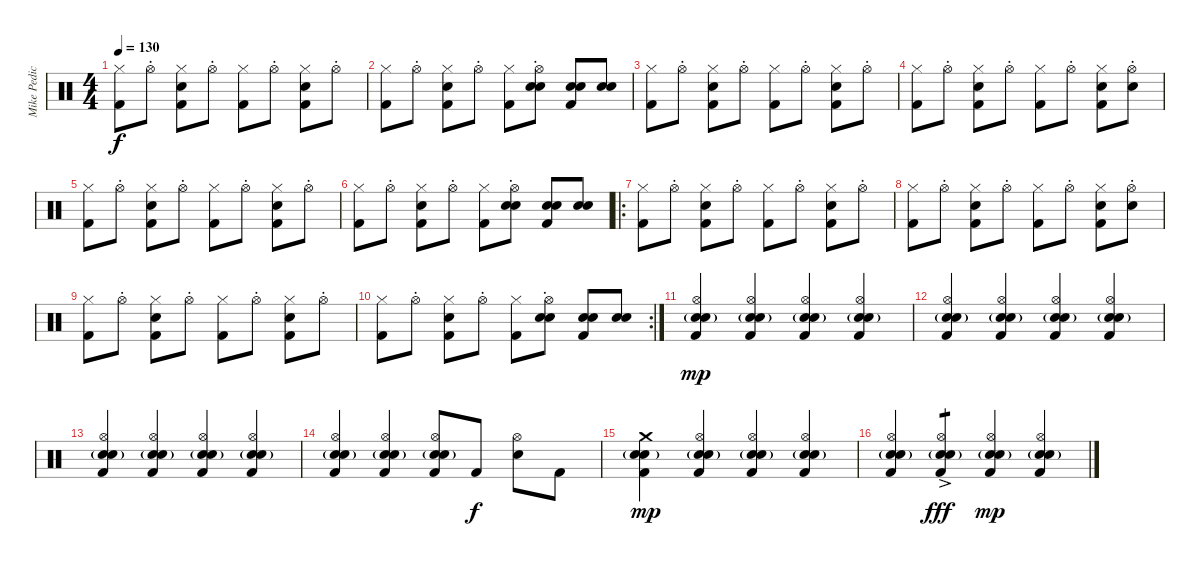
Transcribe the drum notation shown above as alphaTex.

\track ("Mike Pedicone - Drum" "Mike Pedic") {instrument percussion}
\staff {score}
\articulation defaults
\ts (4 4)
\tempo 130
\clef neutral
\ks c
("Hi-Hat (closed)" "Kick (hit) 2").8{dy f} "Hi-Hat (open)"{st}.8 ("Hi-Hat (closed)" "Electric Snare (hit)" "Kick (hit) 2").8 "Hi-Hat (open)"{st}.8 ("Hi-Hat (closed)" "Kick (hit) 2").8 "Hi-Hat (open)"{st}.8 ("Hi-Hat (closed)" "Electric Snare (hit)" "Kick (hit) 2").8 "Hi-Hat (open)"{st}.8 |
("Hi-Hat (closed)" "Kick (hit) 2").8 "Hi-Hat (open)"{st}.8 ("Hi-Hat (closed)" "Electric Snare (hit)" "Kick (hit) 2").8 "Hi-Hat (open)"{st}.8 ("Hi-Hat (closed)" "Kick (hit) 2").8 ("Hi-Hat (open)"{st} "Hand Clap (hit)" "Electric Snare (hit)").8 ("Hand Clap (hit)" "Electric Snare (hit)" "Kick (hit) 2").8 ("Hand Clap (hit)" "Electric Snare (hit)").8 |
("Hi-Hat (closed)" "Kick (hit) 2").8 "Hi-Hat (open)"{st}.8 ("Hi-Hat (closed)" "Electric Snare (hit)" "Kick (hit) 2").8 "Hi-Hat (open)"{st}.8 ("Hi-Hat (closed)" "Kick (hit) 2").8 "Hi-Hat (open)"{st}.8 ("Hi-Hat (closed)" "Electric Snare (hit)" "Kick (hit) 2").8 "Hi-Hat (open)"{st}.8 |
("Hi-Hat (closed)" "Kick (hit) 2").8 "Hi-Hat (open)"{st}.8 ("Hi-Hat (closed)" "Electric Snare (hit)" "Kick (hit) 2").8 "Hi-Hat (open)"{st}.8 ("Hi-Hat (closed)" "Kick (hit) 2").8 "Hi-Hat (open)"{st}.8 ("Hi-Hat (closed)" "Electric Snare (hit)" "Kick (hit) 2").8 ("Hi-Hat (open)"{st} "Electric Snare (hit)").8 |
("Hi-Hat (closed)" "Kick (hit) 2").8 "Hi-Hat (open)"{st}.8 ("Hi-Hat (closed)" "Electric Snare (hit)" "Kick (hit) 2").8 "Hi-Hat (open)"{st}.8 ("Hi-Hat (closed)" "Kick (hit) 2").8 "Hi-Hat (open)"{st}.8 ("Hi-Hat (closed)" "Electric Snare (hit)" "Kick (hit) 2").8 "Hi-Hat (open)"{st}.8 |
("Hi-Hat (closed)" "Kick (hit) 2").8 "Hi-Hat (open)"{st}.8 ("Hi-Hat (closed)" "Electric Snare (hit)" "Kick (hit) 2").8 "Hi-Hat (open)"{st}.8 ("Hi-Hat (closed)" "Kick (hit) 2").8 ("Hi-Hat (open)"{st} "Hand Clap (hit)" "Electric Snare (hit)").8 ("Hand Clap (hit)" "Electric Snare (hit)" "Kick (hit) 2").8 ("Hand Clap (hit)" "Electric Snare (hit)").8 |
\ro
("Hi-Hat (closed)" "Kick (hit) 2").8 "Hi-Hat (open)"{st}.8 ("Hi-Hat (closed)" "Electric Snare (hit)" "Kick (hit) 2").8 "Hi-Hat (open)"{st}.8 ("Hi-Hat (closed)" "Kick (hit) 2").8 "Hi-Hat (open)"{st}.8 ("Hi-Hat (closed)" "Electric Snare (hit)" "Kick (hit) 2").8 "Hi-Hat (open)"{st}.8 |
("Hi-Hat (closed)" "Kick (hit) 2").8 "Hi-Hat (open)"{st}.8 ("Hi-Hat (closed)" "Electric Snare (hit)" "Kick (hit) 2").8 "Hi-Hat (open)"{st}.8 ("Hi-Hat (closed)" "Kick (hit) 2").8 "Hi-Hat (open)"{st}.8 ("Hi-Hat (closed)" "Electric Snare (hit)" "Kick (hit) 2").8 ("Hi-Hat (open)"{st} "Electric Snare (hit)").8 |
("Hi-Hat (closed)" "Kick (hit) 2").8 "Hi-Hat (open)"{st}.8 ("Hi-Hat (closed)" "Electric Snare (hit)" "Kick (hit) 2").8 "Hi-Hat (open)"{st}.8 ("Hi-Hat (closed)" "Kick (hit) 2").8 "Hi-Hat (open)"{st}.8 ("Hi-Hat (closed)" "Electric Snare (hit)" "Kick (hit) 2").8 "Hi-Hat (open)"{st}.8 |
\rc 2
("Hi-Hat (closed)" "Kick (hit) 2").8 "Hi-Hat (open)"{st}.8 ("Hi-Hat (closed)" "Electric Snare (hit)" "Kick (hit) 2").8 "Hi-Hat (open)"{st}.8 ("Hi-Hat (closed)" "Kick (hit) 2").8 ("Hi-Hat (open)"{st} "Hand Clap (hit)" "Electric Snare (hit)").8 ("Hand Clap (hit)" "Electric Snare (hit)" "Kick (hit) 2").8 ("Hand Clap (hit)" "Electric Snare (hit)").8 |
("Hi-Hat (open)" "Electric Snare (hit)" "Hand Clap (hit)"{g} "Kick (hit) 2").4{dy mp} ("Hi-Hat (open)" "Electric Snare (hit)" "Hand Clap (hit)"{g} "Kick (hit) 2").4 ("Hi-Hat (open)" "Electric Snare (hit)" "Hand Clap (hit)"{g} "Kick (hit) 2").4 ("Hi-Hat (open)" "Electric Snare (hit)" "Hand Clap (hit)"{g} "Kick (hit) 2").4 |
("Hi-Hat (open)" "Electric Snare (hit)" "Hand Clap (hit)"{g} "Kick (hit) 2").4 ("Hi-Hat (open)" "Electric Snare (hit)" "Hand Clap (hit)"{g} "Kick (hit) 2").4 ("Hi-Hat (open)" "Electric Snare (hit)" "Hand Clap (hit)"{g} "Kick (hit) 2").4 ("Hi-Hat (open)" "Electric Snare (hit)" "Hand Clap (hit)"{g} "Kick (hit) 2").4 |
("Hi-Hat (open)" "Electric Snare (hit)" "Hand Clap (hit)"{g} "Kick (hit) 2").4 ("Hi-Hat (open)" "Electric Snare (hit)" "Hand Clap (hit)"{g} "Kick (hit) 2").4 ("Hi-Hat (open)" "Electric Snare (hit)" "Hand Clap (hit)"{g} "Kick (hit) 2").4 ("Hi-Hat (open)" "Electric Snare (hit)" "Hand Clap (hit)"{g} "Kick (hit) 2").4 |
("Hi-Hat (open)" "Electric Snare (hit)" "Hand Clap (hit)"{g} "Kick (hit) 2").4 ("Hi-Hat (open)" "Electric Snare (hit)" "Hand Clap (hit)"{g} "Kick (hit) 2").4 ("Hi-Hat (open)" "Electric Snare (hit)" "Hand Clap (hit)"{g} "Kick (hit) 2").8 "Kick (hit) 2".8{dy f} ("Hi-Hat (open)" "Electric Snare (hit)").8 "Kick (hit) 2".8 |
("Crash medium (hit)" "Electric Snare (hit)" "Hand Clap (hit)"{g} "Kick (hit) 2").4{dy mp} ("Hi-Hat (open)" "Electric Snare (hit)" "Hand Clap (hit)"{g} "Kick (hit) 2").4 ("Hi-Hat (open)" "Electric Snare (hit)" "Hand Clap (hit)"{g} "Kick (hit) 2").4 ("Hi-Hat (open)" "Electric Snare (hit)" "Hand Clap (hit)"{g} "Kick (hit) 2").4 |
("Hi-Hat (open)" "Electric Snare (hit)" "Hand Clap (hit)"{g} "Kick (hit) 2").4 ("Hi-Hat (open)" "Electric Snare (hit)" "Hand Clap (hit)"{g} "Kick (hit) 2"{ac}).4{tp 1 dy fff} ("Hi-Hat (open)" "Electric Snare (hit)" "Hand Clap (hit)"{g} "Kick (hit) 2").4{dy mp} ("Hi-Hat (open)" "Electric Snare (hit)" "Hand Clap (hit)"{g} "Kick (hit) 2").4
